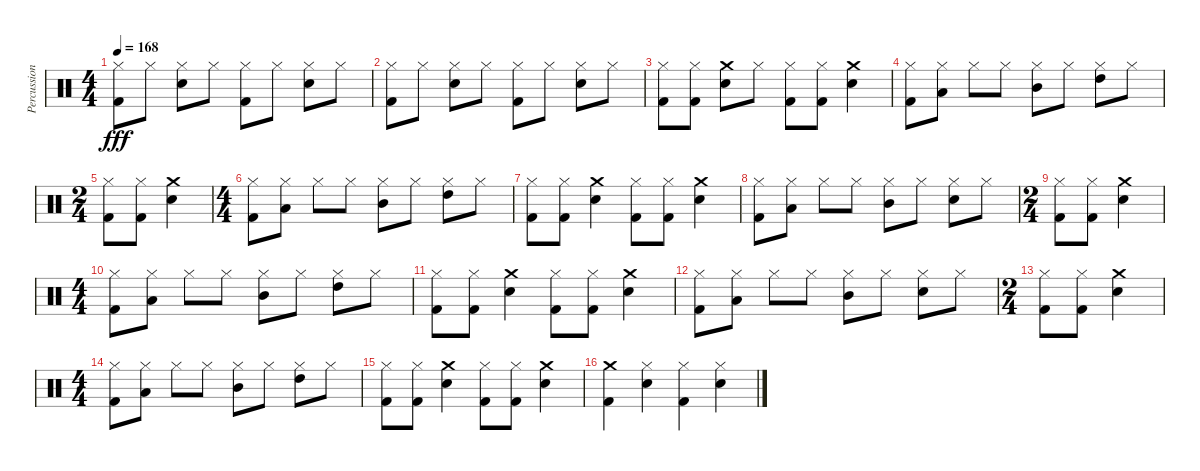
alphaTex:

\track ("Percussion" "Percussion") {instrument percussion}
\staff {score}
\articulation defaults
\ts (4 4)
\tempo 168
\clef neutral
\ks c
("Kick (hit) 2" "Hi-Hat (closed)").8{dy fff} "Hi-Hat (closed)".8 ("Snare (hit) 2" "Hi-Hat (closed)").8 "Hi-Hat (closed)".8 ("Kick (hit) 2" "Hi-Hat (closed)").8 "Hi-Hat (closed)".8 ("Snare (hit) 2" "Hi-Hat (closed)").8 "Hi-Hat (closed)".8 |
("Kick (hit) 2" "Hi-Hat (closed)").8 "Hi-Hat (closed)".8 ("Snare (hit) 2" "Hi-Hat (closed)").8 "Hi-Hat (closed)".8 ("Kick (hit) 2" "Hi-Hat (closed)").8 "Hi-Hat (closed)".8 ("Snare (hit) 2" "Hi-Hat (closed)").8 "Hi-Hat (closed)".8 |
("Kick (hit) 2" "Hi-Hat (closed)").8 ("Kick (hit) 2" "Hi-Hat (closed)").8 ("Snare (hit) 2" "Crash medium (hit)").8 "Hi-Hat (closed)".8 ("Hi-Hat (closed)" "Kick (hit) 2").8 ("Hi-Hat (closed)" "Kick (hit) 2").8 ("Crash medium (hit)" "Snare (hit) 2").4 |
("Hi-Hat (closed)" "Kick (hit) 2").8 ("Low Tom (hit)" "Hi-Hat (closed)").8 "Hi-Hat (closed)".8 "Hi-Hat (closed)".8 ("Mid Tom (hit)" "Hi-Hat (closed)").8 "Hi-Hat (closed)".8 ("High Tom (hit)" "Hi-Hat (closed)").8 "Hi-Hat (closed)".8 |
\ts (2 4)
("Kick (hit) 2" "Hi-Hat (closed)").8 ("Kick (hit) 2" "Hi-Hat (closed)").8 ("Snare (hit) 2" "Crash medium (hit)").4 |
\ts (4 4)
("Hi-Hat (closed)" "Kick (hit) 2").8 ("Low Tom (hit)" "Hi-Hat (closed)").8 "Hi-Hat (closed)".8 "Hi-Hat (closed)".8 ("Mid Tom (hit)" "Hi-Hat (closed)").8 "Hi-Hat (closed)".8 ("Hi-Hat (closed)" "High Tom (hit)").8 "Hi-Hat (closed)".8 |
("Hi-Hat (closed)" "Kick (hit) 2").8 ("Hi-Hat (closed)" "Kick (hit) 2").8 ("Snare (hit) 2" "Crash medium (hit)").4 ("Kick (hit) 2" "Hi-Hat (closed)").8 ("Kick (hit) 2" "Hi-Hat (closed)").8 ("Crash medium (hit)" "Snare (hit) 2").4 |
("Hi-Hat (closed)" "Kick (hit) 2").8 ("Low Tom (hit)" "Hi-Hat (closed)").8 "Hi-Hat (closed)".8 "Hi-Hat (closed)".8 ("Mid Tom (hit)" "Hi-Hat (closed)").8 "Hi-Hat (closed)".8 ("Snare (hit) 2" "Hi-Hat (closed)").8 "Hi-Hat (closed)".8 |
\ts (2 4)
("Kick (hit) 2" "Hi-Hat (closed)").8 ("Kick (hit) 2" "Hi-Hat (closed)").8 ("Snare (hit) 2" "Crash medium (hit)").4 |
\ts (4 4)
("Hi-Hat (closed)" "Kick (hit) 2").8 ("Low Tom (hit)" "Hi-Hat (closed)").8 "Hi-Hat (closed)".8 "Hi-Hat (closed)".8 ("Mid Tom (hit)" "Hi-Hat (closed)").8 "Hi-Hat (closed)".8 ("Hi-Hat (closed)" "High Tom (hit)").8 "Hi-Hat (closed)".8 |
("Hi-Hat (closed)" "Kick (hit) 2").8 ("Hi-Hat (closed)" "Kick (hit) 2").8 ("Snare (hit) 2" "Crash medium (hit)").4 ("Kick (hit) 2" "Hi-Hat (closed)").8 ("Kick (hit) 2" "Hi-Hat (closed)").8 ("Crash medium (hit)" "Snare (hit) 2").4 |
("Hi-Hat (closed)" "Kick (hit) 2").8 ("Low Tom (hit)" "Hi-Hat (closed)").8 "Hi-Hat (closed)".8 "Hi-Hat (closed)".8 ("Mid Tom (hit)" "Hi-Hat (closed)").8 "Hi-Hat (closed)".8 ("Snare (hit) 2" "Hi-Hat (closed)").8 "Hi-Hat (closed)".8 |
\ts (2 4)
("Kick (hit) 2" "Hi-Hat (closed)").8 ("Kick (hit) 2" "Hi-Hat (closed)").8 ("Snare (hit) 2" "Crash medium (hit)").4 |
\ts (4 4)
("Hi-Hat (closed)" "Kick (hit) 2").8 ("Low Tom (hit)" "Hi-Hat (closed)").8 "Hi-Hat (closed)".8 "Hi-Hat (closed)".8 ("Mid Tom (hit)" "Hi-Hat (closed)").8 "Hi-Hat (closed)".8 ("Hi-Hat (closed)" "High Tom (hit)").8 "Hi-Hat (closed)".8 |
("Hi-Hat (closed)" "Kick (hit) 2").8 ("Hi-Hat (closed)" "Kick (hit) 2").8 ("Snare (hit) 2" "Crash medium (hit)").4 ("Kick (hit) 2" "Hi-Hat (closed)").8 ("Kick (hit) 2" "Hi-Hat (closed)").8 ("Crash medium (hit)" "Snare (hit) 2").4 |
("Kick (hit) 2" "Crash medium (hit)").4 ("Hi-Hat (closed)" "Snare (hit) 2").4 ("Hi-Hat (closed)" "Kick (hit) 2").4 ("Snare (hit) 2" "Hi-Hat (closed)").4
